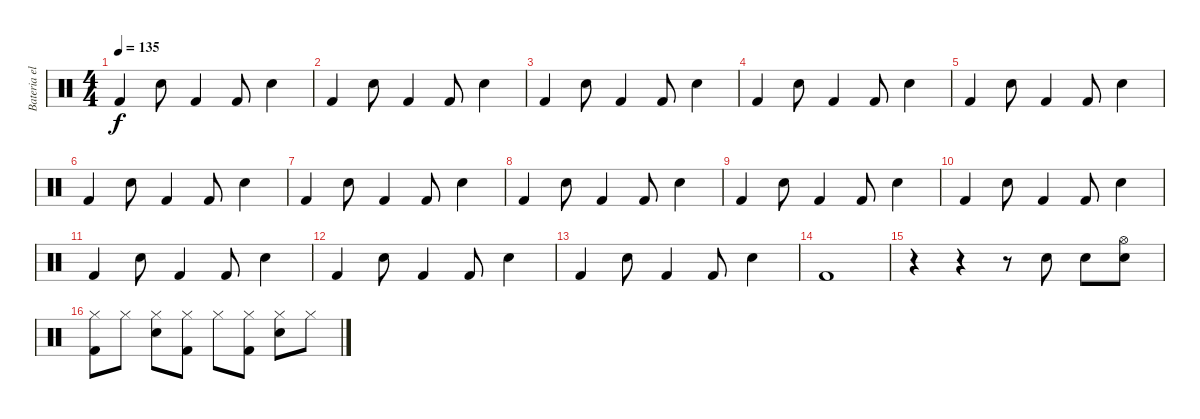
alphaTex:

\track ("Bateria electrica" "Bateria el") {instrument percussion}
\staff {score}
\articulation defaults
\ts (4 4)
\tempo 135
\clef neutral
\ks c "Kick (hit) 2".4{dy f} "Snare (hit) 2".8 "Kick (hit) 2".4 "Kick (hit) 2".8 "Snare (hit) 2".4
|
"Kick (hit) 2".4 "Snare (hit) 2".8 "Kick (hit) 2".4 "Kick (hit) 2".8 "Snare (hit) 2".4 |
"Kick (hit) 2".4 "Snare (hit) 2".8 "Kick (hit) 2".4 "Kick (hit) 2".8 "Snare (hit) 2".4 |
"Kick (hit) 2".4 "Snare (hit) 2".8 "Kick (hit) 2".4 "Kick (hit) 2".8 "Snare (hit) 2".4 |
"Kick (hit) 2".4 "Snare (hit) 2".8 "Kick (hit) 2".4 "Kick (hit) 2".8 "Snare (hit) 2".4 |
"Kick (hit) 2".4 "Snare (hit) 2".8 "Kick (hit) 2".4 "Kick (hit) 2".8 "Snare (hit) 2".4 |
"Kick (hit) 2".4 "Snare (hit) 2".8 "Kick (hit) 2".4 "Kick (hit) 2".8 "Snare (hit) 2".4 |
"Kick (hit) 2".4 "Snare (hit) 2".8 "Kick (hit) 2".4 "Kick (hit) 2".8 "Snare (hit) 2".4 |
"Kick (hit) 2".4 "Snare (hit) 2".8 "Kick (hit) 2".4 "Kick (hit) 2".8 "Snare (hit) 2".4 |
"Kick (hit) 2".4 "Snare (hit) 2".8 "Kick (hit) 2".4 "Kick (hit) 2".8 "Snare (hit) 2".4 |
"Kick (hit) 2".4 "Snare (hit) 2".8 "Kick (hit) 2".4 "Kick (hit) 2".8 "Snare (hit) 2".4 |
"Kick (hit) 2".4 "Snare (hit) 2".8 "Kick (hit) 2".4 "Kick (hit) 2".8 "Snare (hit) 2".4 |
"Kick (hit) 2".4 "Snare (hit) 2".8 "Kick (hit) 2".4 "Kick (hit) 2".8 "Snare (hit) 2".4 |
"Kick (hit) 2".1 |
r.4 r.4 r.8 "Snare (hit) 2".8 "Snare (hit) 2".8 ("Hi-Hat (open)" "Snare (hit) 2").8 |
("Hi-Hat (closed)" "Kick (hit) 2").8 "Hi-Hat (closed)".8 ("Hi-Hat (closed)" "Snare (hit) 2").8 ("Hi-Hat (closed)" "Kick (hit) 2").8 "Hi-Hat (closed)".8 ("Hi-Hat (closed)" "Kick (hit) 2").8 ("Hi-Hat (closed)" "Snare (hit) 2").8 "Hi-Hat (closed)".8
